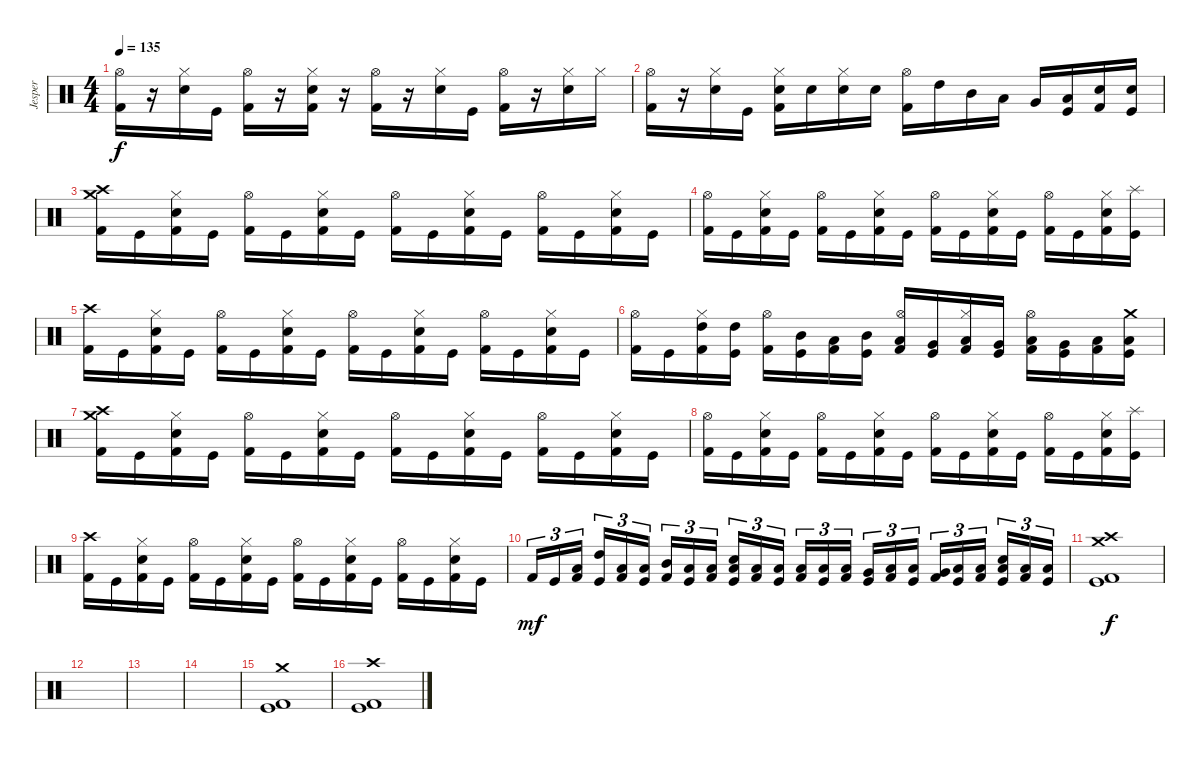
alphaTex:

\track ("Jesper" "Jesper") {instrument percussion}
\staff {score}
\articulation defaults
\ts (4 4)
\tempo 135
\clef neutral
\ks c
("Kick (hit) 2" "Hi-Hat (open)").16{dy f} r.16 ("Snare (hit) 2" "Hi-Hat (closed)").16 "Kick (hit)".16 ("Kick (hit) 2" "Hi-Hat (open)").16 r.16 ("Kick (hit) 2" "Snare (hit) 2" "Hi-Hat (closed)").16 r.16 ("Kick (hit) 2" "Hi-Hat (open)").16 r.16 ("Snare (hit) 2" "Hi-Hat (closed)").16 "Kick (hit)".16 ("Kick (hit) 2" "Hi-Hat (open)").16 r.16 ("Snare (hit) 2" "Hi-Hat (closed)").16 "Hi-Hat (closed)".16 |
("Kick (hit) 2" "Hi-Hat (open)").16 r.16 ("Snare (hit) 2" "Hi-Hat (closed)").16 "Kick (hit)".16 ("Kick (hit) 2" "Snare (hit) 2" "Hi-Hat (closed)").16 "Snare (hit) 2".16 ("Snare (hit) 2" "Hi-Hat (closed)").16 "Snare (hit) 2".16 ("Kick (hit) 2" "Hi-Hat (open)").16 "High Tom (hit)".16 "Mid Tom (hit)".16 "Low Tom (hit)".16 "Very Low Tom (hit)".16 ("Kick (hit)" "Low Floor Tom (hit)").16 ("Kick (hit) 2" "Snare (hit) 2").16 ("Kick (hit)" "Snare (hit) 2").16 |
("Kick (hit) 2" "Crash medium (hit)" "Crash high (hit)").16 "Kick (hit)".16 ("Kick (hit) 2" "Snare (hit) 2" "Hi-Hat (closed)").16 "Kick (hit)".16 ("Kick (hit) 2" "Hi-Hat (open)").16 "Kick (hit)".16 ("Kick (hit) 2" "Snare (hit) 2" "Hi-Hat (closed)").16 "Kick (hit)".16 ("Kick (hit) 2" "Hi-Hat (open)").16 "Kick (hit)".16 ("Kick (hit) 2" "Snare (hit) 2" "Hi-Hat (closed)").16 "Kick (hit)".16 ("Kick (hit) 2" "Hi-Hat (open)").16 "Kick (hit)".16 ("Kick (hit) 2" "Snare (hit) 2" "Hi-Hat (closed)").16 "Kick (hit)".16 |
("Kick (hit) 2" "Hi-Hat (open)").16 "Kick (hit)".16 ("Kick (hit) 2" "Snare (hit) 2" "Hi-Hat (closed)").16 "Kick (hit)".16 ("Kick (hit) 2" "Hi-Hat (open)").16 "Kick (hit)".16 ("Kick (hit) 2" "Snare (hit) 2" "Hi-Hat (closed)").16 "Kick (hit)".16 ("Kick (hit) 2" "Hi-Hat (open)").16 "Kick (hit)".16 ("Kick (hit) 2" "Snare (hit) 2" "Hi-Hat (closed)").16 "Kick (hit)".16 ("Kick (hit) 2" "Hi-Hat (open)").16 "Kick (hit)".16 ("Kick (hit) 2" "Snare (hit) 2" "Hi-Hat (closed)").16 ("Kick (hit)" "Splash (hit)").16 |
("Kick (hit) 2" "Crash high (hit)").16 "Kick (hit)".16 ("Kick (hit) 2" "Snare (hit) 2" "Hi-Hat (closed)").16 "Kick (hit)".16 ("Kick (hit) 2" "Hi-Hat (open)").16 "Kick (hit)".16 ("Kick (hit) 2" "Snare (hit) 2" "Hi-Hat (closed)").16 "Kick (hit)".16 ("Kick (hit) 2" "Hi-Hat (open)").16 "Kick (hit)".16 ("Kick (hit) 2" "Snare (hit) 2" "Hi-Hat (closed)").16 "Kick (hit)".16 ("Kick (hit) 2" "Hi-Hat (open)").16 "Kick (hit)".16 ("Kick (hit) 2" "Snare (hit) 2" "Hi-Hat (closed)").16 "Kick (hit)".16 |
("Kick (hit) 2" "Hi-Hat (open)").16 "Kick (hit)".16 ("Kick (hit) 2" "High Tom (hit)" "Hi-Hat (closed)").16 ("Kick (hit)" "High Tom (hit)").16 ("Kick (hit) 2" "Hi-Hat (open)").16 ("Kick (hit)" "Mid Tom (hit)").16 ("Kick (hit) 2" "Low Tom (hit)").16 ("Kick (hit)" "Mid Tom (hit)").16 ("Kick (hit) 2" "Low Tom (hit)" "Hi-Hat (open)").16 ("Kick (hit)" "Very Low Tom (hit)").16 ("Kick (hit) 2" "Low Tom (hit)" "Hi-Hat (closed)").16 ("Kick (hit)" "Very Low Tom (hit)").16 ("Kick (hit) 2" "Low Floor Tom (hit)" "Hi-Hat (open)").16 ("Kick (hit)" "Very Low Tom (hit)").16 ("Kick (hit) 2" "Low Floor Tom (hit)").16 ("Kick (hit)" "Low Floor Tom (hit)" "Crash medium (hit)").16 |
("Kick (hit) 2" "Crash high (hit)" "Crash medium (hit)").16 "Kick (hit)".16 ("Kick (hit) 2" "Snare (hit) 2" "Hi-Hat (closed)").16 "Kick (hit)".16 ("Kick (hit) 2" "Hi-Hat (open)").16 "Kick (hit)".16 ("Kick (hit) 2" "Snare (hit) 2" "Hi-Hat (closed)").16 "Kick (hit)".16 ("Kick (hit) 2" "Hi-Hat (open)").16 "Kick (hit)".16 ("Kick (hit) 2" "Snare (hit) 2" "Hi-Hat (closed)").16 "Kick (hit)".16 ("Kick (hit) 2" "Hi-Hat (open)").16 "Kick (hit)".16 ("Kick (hit) 2" "Snare (hit) 2" "Hi-Hat (closed)").16 "Kick (hit)".16 |
("Kick (hit) 2" "Hi-Hat (open)").16 "Kick (hit)".16 ("Kick (hit) 2" "Snare (hit) 2" "Hi-Hat (closed)").16 "Kick (hit)".16 ("Kick (hit) 2" "Hi-Hat (open)").16 "Kick (hit)".16 ("Kick (hit) 2" "Snare (hit) 2" "Hi-Hat (closed)").16 "Kick (hit)".16 ("Kick (hit) 2" "Hi-Hat (open)").16 "Kick (hit)".16 ("Kick (hit) 2" "Snare (hit) 2" "Hi-Hat (closed)").16 "Kick (hit)".16 ("Kick (hit) 2" "Hi-Hat (open)").16 "Kick (hit)".16 ("Kick (hit) 2" "Snare (hit) 2" "Hi-Hat (closed)").16 ("Kick (hit)" "Splash (hit)").16 |
("Kick (hit) 2" "Crash high (hit)").16 "Kick (hit)".16 ("Kick (hit) 2" "Snare (hit) 2" "Hi-Hat (closed)").16 "Kick (hit)".16 ("Kick (hit) 2" "Hi-Hat (open)").16 "Kick (hit)".16 ("Kick (hit) 2" "Snare (hit) 2" "Hi-Hat (closed)").16 "Kick (hit)".16 ("Kick (hit) 2" "Hi-Hat (open)").16 "Kick (hit)".16 ("Kick (hit) 2" "Snare (hit) 2" "Hi-Hat (closed)").16 "Kick (hit)".16 ("Kick (hit) 2" "Hi-Hat (open)").16 "Kick (hit)".16 ("Kick (hit) 2" "Snare (hit) 2" "Hi-Hat (closed)").16 "Kick (hit)".16 |
"Kick (hit) 2".16{tu (3 2) dy mf} "Kick (hit)".16{tu (3 2)} ("Kick (hit) 2" "Low Floor Tom (hit)").16{tu (3 2)} ("Kick (hit)" "High Tom (hit)").16{tu (3 2)} ("Kick (hit) 2" "Low Floor Tom (hit)").16{tu (3 2)} ("Kick (hit)" "Low Floor Tom (hit)").16{tu (3 2)} ("Kick (hit) 2" "Mid Tom (hit)").16{tu (3 2)} ("Kick (hit)" "Low Floor Tom (hit)").16{tu (3 2)} ("Kick (hit) 2" "Low Floor Tom (hit)").16{tu (3 2)} ("Kick (hit)" "Snare (hit) 2" "Low Tom (hit)").16{tu (3 2)} ("Kick (hit) 2" "Low Floor Tom (hit)").16{tu (3 2)} ("Kick (hit)" "Low Floor Tom (hit)").16{tu (3 2)} ("Kick (hit) 2" "Low Tom (hit)").16{tu (3 2)} ("Kick (hit)" "Low Floor Tom (hit)").16{tu (3 2)} ("Kick (hit) 2" "Low Floor Tom (hit)").16{tu (3 2)} ("Kick (hit)" "Very Low Tom (hit)").16{tu (3 2)} ("Kick (hit) 2" "Low Floor Tom (hit)").16{tu (3 2)} ("Kick (hit)" "Low Floor Tom (hit)").16{tu (3 2)} ("Kick (hit) 2" "Very Low Tom (hit)").16{tu (3 2)} ("Kick (hit)" "Low Floor Tom (hit)").16{tu (3 2)} ("Kick (hit) 2" "Low Floor Tom (hit)").16{tu (3 2)} ("Kick (hit)" "Snare (hit) 2" "Low Floor Tom (hit)").16{tu (3 2)} ("Kick (hit) 2" "Low Floor Tom (hit)").16{tu (3 2)} ("Kick (hit)" "Low Floor Tom (hit)").16{tu (3 2)} |
("Kick (hit) 2" "Kick (hit)" "Crash medium (hit)" "Crash high (hit)").1{dy f} |
|
|
|
("Kick (hit) 2" "Kick (hit)" "Crash medium (hit)").1 |
("Kick (hit) 2" "Kick (hit)" "Crash high (hit)").1
